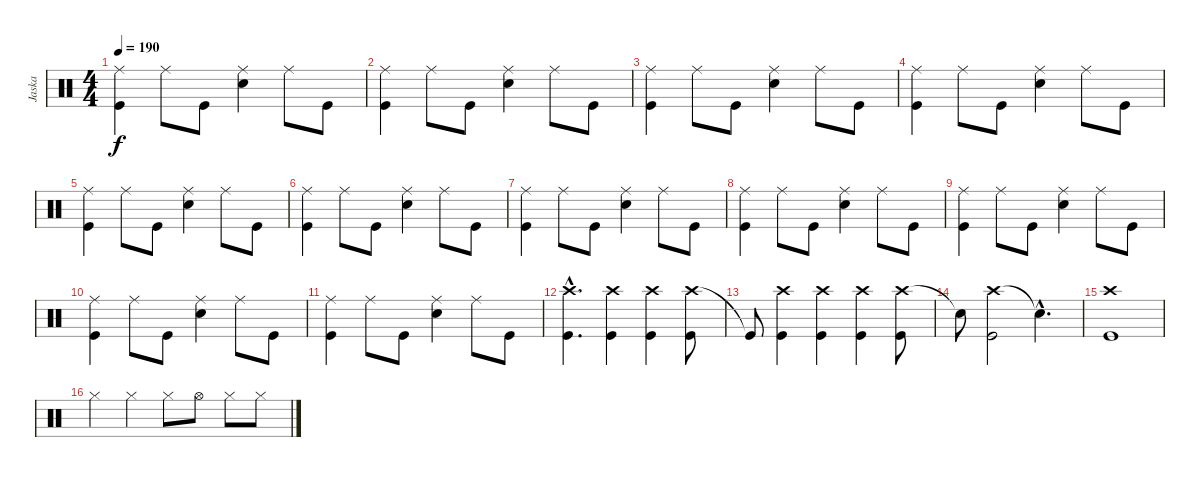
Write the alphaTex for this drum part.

\track ("Jaska" "Jaska") {instrument percussion}
\staff {score}
\articulation defaults
\ts (4 4)
\tempo 190
\clef neutral
\ks c
("Ride (middle)" "Kick (hit)").4{dy f} "Ride (middle)".8 "Kick (hit)".8 ("Ride (middle)" "Snare (hit) 2").4 "Ride (middle)".8 "Kick (hit)".8 |
("Ride (middle)" "Kick (hit)").4 "Ride (middle)".8 "Kick (hit)".8 ("Ride (middle)" "Snare (hit) 2").4 "Ride (middle)".8 "Kick (hit)".8 |
("Ride (middle)" "Kick (hit)").4 "Ride (middle)".8 "Kick (hit)".8 ("Ride (middle)" "Snare (hit) 2").4 "Ride (middle)".8 "Kick (hit)".8 |
("Ride (middle)" "Kick (hit)").4 "Ride (middle)".8 "Kick (hit)".8 ("Ride (middle)" "Snare (hit) 2").4 "Ride (middle)".8 "Kick (hit)".8 |
("Ride (middle)" "Kick (hit)").4 "Ride (middle)".8 "Kick (hit)".8 ("Ride (middle)" "Snare (hit) 2").4 "Ride (middle)".8 "Kick (hit)".8 |
("Ride (middle)" "Kick (hit)").4 "Ride (middle)".8 "Kick (hit)".8 ("Ride (middle)" "Snare (hit) 2").4 "Ride (middle)".8 "Kick (hit)".8 |
("Ride (middle)" "Kick (hit)").4 "Ride (middle)".8 "Kick (hit)".8 ("Ride (middle)" "Snare (hit) 2").4 "Ride (middle)".8 "Kick (hit)".8 |
("Ride (middle)" "Kick (hit)").4 "Ride (middle)".8 "Kick (hit)".8 ("Ride (middle)" "Snare (hit) 2").4 "Ride (middle)".8 "Kick (hit)".8 |
("Ride (middle)" "Kick (hit)").4 "Ride (middle)".8 "Kick (hit)".8 ("Ride (middle)" "Snare (hit) 2").4 "Ride (middle)".8 "Kick (hit)".8 |
("Ride (middle)" "Kick (hit)").4 "Ride (middle)".8 "Kick (hit)".8 ("Ride (middle)" "Snare (hit) 2").4 "Ride (middle)".8 "Kick (hit)".8 |
("Ride (middle)" "Kick (hit)").4 "Ride (middle)".8 "Kick (hit)".8 ("Ride (middle)" "Snare (hit) 2").4 "Ride (middle)".8 "Kick (hit)".8 |
("Crash high (hit)"{hac} "Kick (hit)"{hac}).4{d} ("Crash high (hit)" "Kick (hit)").4 ("Crash high (hit)" "Kick (hit)").4 ("Crash high (hit)" "Kick (hit)").8 |
"Kick (hit)"{t}.8 ("Crash high (hit)" "Kick (hit)").4 ("Crash high (hit)" "Kick (hit)").4 ("Crash high (hit)" "Kick (hit)").4 ("Crash high (hit)" "Kick (hit)").8 |
"Snare (hit)"{t}.8 ("Crash high (hit)" "Kick (hit)").2 "Snare (hit)"{hac t}.4{d} |
("Crash high (hit)" "Kick (hit)").1 |
"Hi-Hat (closed)".4 "Hi-Hat (closed)".4 "Hi-Hat (closed)".8 "Hi-Hat (open)".8 "Hi-Hat (closed)".8 "Hi-Hat (closed)".8
